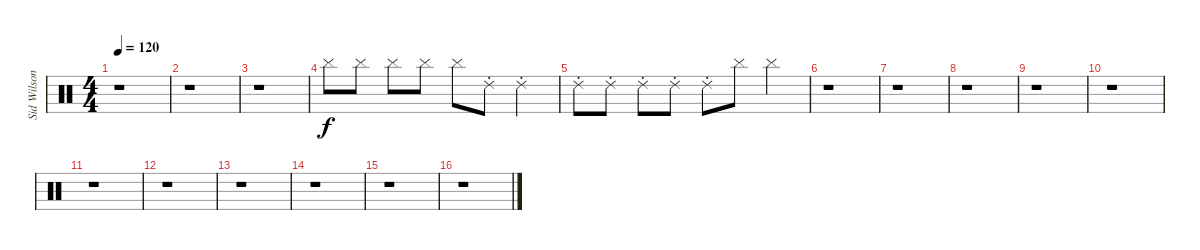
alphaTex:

\track ("Sid Wilson" "Sid Wilson") {instrument percussion}
\staff {score}
\articulation defaults
\ts (4 4)
\tempo 120
\clef neutral
\ks c
r.1{dy f} |
r.1 |
r.1 |
"Cymbal (hit)".8 "Cymbal (hit)".8 "Cymbal (hit)".8 "Cymbal (hit)".8 "Cymbal (hit)".8 "Ride (choke) 2".8 "Ride (choke) 2".4 |
"Ride (choke) 2".8 "Ride (choke) 2".8 "Ride (choke) 2".8 "Ride (choke) 2".8 "Ride (choke) 2".8 "Cymbal (hit)".8 "Cymbal (hit)".4 |
r.1 |
r.1 |
r.1 |
r.1 |
r.1 |
r.1 |
r.1 |
r.1 |
r.1 |
r.1 |
r.1
